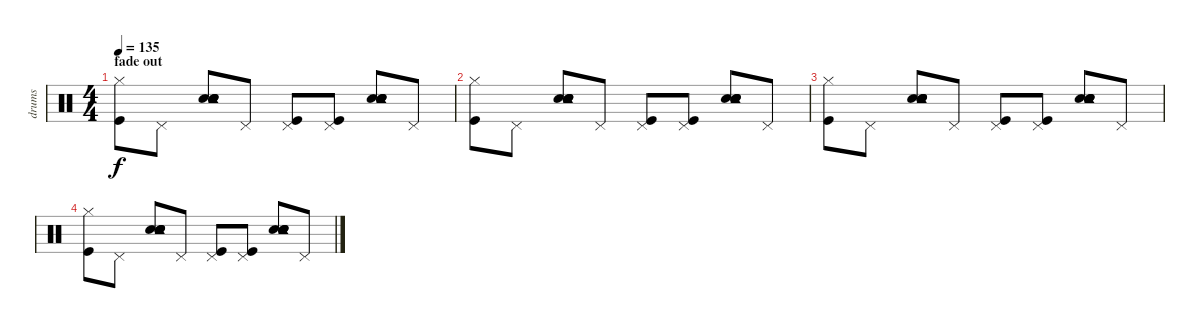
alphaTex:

\track ("drums" "drums") {instrument percussion}
\staff {score}
\articulation defaults
\ts (4 4)
\section ("" "fade out")
\tempo 135
\clef neutral
\ks c
("Kick (hit)" "Hi-Hat (closed)").8{dy f volume 0} "Pedal Hi-Hat (hit)".8 ("Snare (hit) 2" "Snare (hit) 2" "Electric Snare (hit)" "Electric Snare (hit)" "Tambourine (hit)").8 "Pedal Hi-Hat (hit)".8 ("Kick (hit)" "Pedal Hi-Hat (hit)").8 ("Kick (hit)" "Pedal Hi-Hat (hit)").8 ("Snare (hit) 2" "Snare (hit) 2" "Electric Snare (hit)" "Electric Snare (hit)" "Tambourine (hit)").8 "Pedal Hi-Hat (hit)".8 |
("Kick (hit)" "Hi-Hat (closed)").8 "Pedal Hi-Hat (hit)".8 ("Snare (hit) 2" "Snare (hit) 2" "Electric Snare (hit)" "Electric Snare (hit)" "Tambourine (hit)").8 "Pedal Hi-Hat (hit)".8 ("Kick (hit)" "Pedal Hi-Hat (hit)").8 ("Kick (hit)" "Pedal Hi-Hat (hit)").8 ("Snare (hit) 2" "Snare (hit) 2" "Electric Snare (hit)" "Electric Snare (hit)" "Tambourine (hit)").8 "Pedal Hi-Hat (hit)".8 |
("Kick (hit)" "Hi-Hat (closed)").8 "Pedal Hi-Hat (hit)".8 ("Snare (hit) 2" "Snare (hit) 2" "Electric Snare (hit)" "Electric Snare (hit)" "Tambourine (hit)").8 "Pedal Hi-Hat (hit)".8 ("Kick (hit)" "Pedal Hi-Hat (hit)").8 ("Kick (hit)" "Pedal Hi-Hat (hit)").8 ("Snare (hit) 2" "Snare (hit) 2" "Electric Snare (hit)" "Electric Snare (hit)" "Tambourine (hit)").8 "Pedal Hi-Hat (hit)".8 |
("Kick (hit)" "Hi-Hat (closed)").8 "Pedal Hi-Hat (hit)".8 ("Snare (hit) 2" "Snare (hit) 2" "Electric Snare (hit)" "Electric Snare (hit)" "Tambourine (hit)").8 "Pedal Hi-Hat (hit)".8 ("Kick (hit)" "Pedal Hi-Hat (hit)").8 ("Kick (hit)" "Pedal Hi-Hat (hit)").8 ("Snare (hit) 2" "Snare (hit) 2" "Electric Snare (hit)" "Electric Snare (hit)" "Tambourine (hit)").8 "Pedal Hi-Hat (hit)".8
